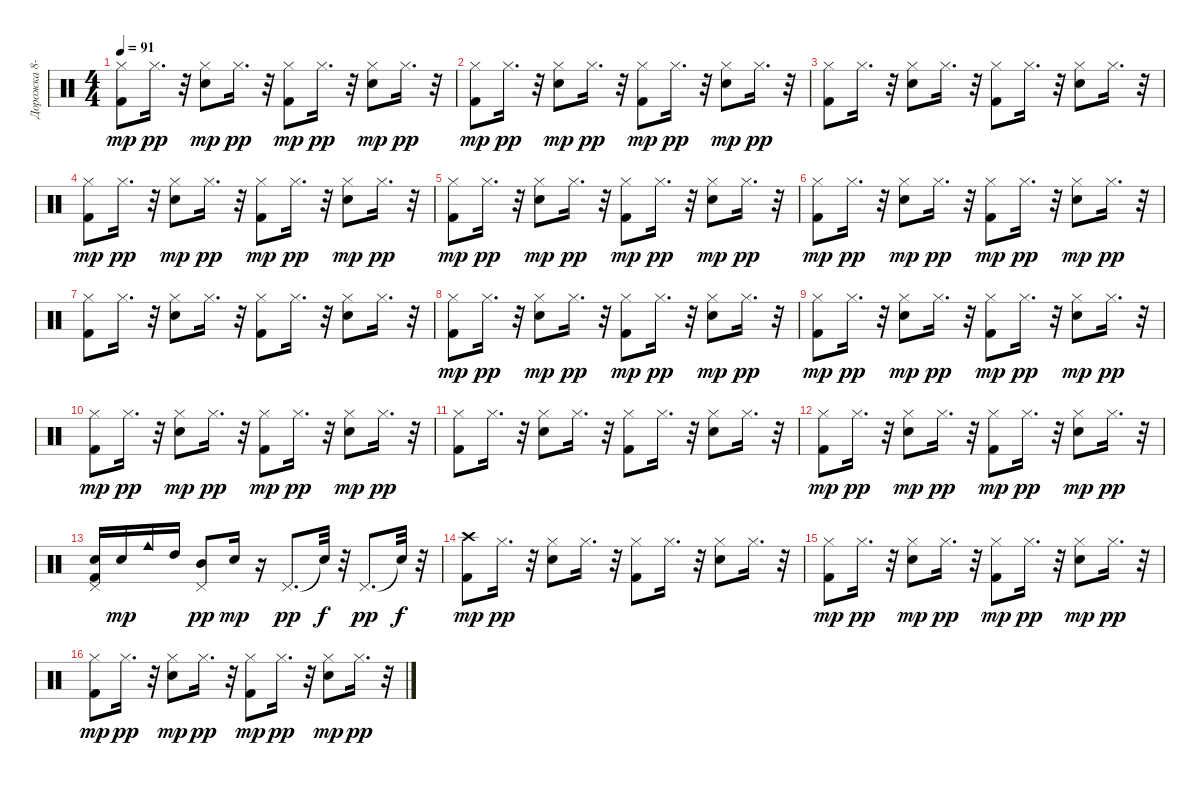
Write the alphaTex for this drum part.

\track ("Дорожка 8-9-10-11" "Дорожка 8-") {instrument percussion}
\staff {score}
\articulation defaults
\ts (4 4)
\tempo 91
\clef neutral
\ks c
("Hi-Hat (closed)" "Kick (hit) 2").8{dy mp} "Hi-Hat (closed)".16{d dy pp} r.32 ("Hi-Hat (closed)" "Electric Snare (hit)").8{dy mp} "Hi-Hat (closed)".16{d dy pp} r.32 ("Hi-Hat (closed)" "Kick (hit) 2").8{dy mp} "Hi-Hat (closed)".16{d dy pp} r.32 ("Hi-Hat (closed)" "Electric Snare (hit)").8{dy mp} "Hi-Hat (closed)".16{d dy pp} r.32 |
("Hi-Hat (closed)" "Kick (hit) 2").8{dy mp} "Hi-Hat (closed)".16{d dy pp} r.32 ("Hi-Hat (closed)" "Electric Snare (hit)").8{dy mp} "Hi-Hat (closed)".16{d dy pp} r.32 ("Hi-Hat (closed)" "Kick (hit) 2").8{dy mp} "Hi-Hat (closed)".16{d dy pp} r.32 ("Hi-Hat (closed)" "Electric Snare (hit)").8{dy mp} "Hi-Hat (closed)".16{d dy pp} r.32 |
("Kick (hit) 2" "Hi-Hat (closed)").8 "Hi-Hat (closed)".16{d} r.32 ("Electric Snare (hit)" "Hi-Hat (closed)").8 "Hi-Hat (closed)".16{d} r.32 ("Kick (hit) 2" "Hi-Hat (closed)").8 "Hi-Hat (closed)".16{d} r.32 ("Electric Snare (hit)" "Hi-Hat (closed)").8 "Hi-Hat (closed)".16{d} r.32 |
("Hi-Hat (closed)" "Kick (hit) 2").8{dy mp} "Hi-Hat (closed)".16{d dy pp} r.32 ("Hi-Hat (closed)" "Electric Snare (hit)").8{dy mp} "Hi-Hat (closed)".16{d dy pp} r.32 ("Hi-Hat (closed)" "Kick (hit) 2").8{dy mp} "Hi-Hat (closed)".16{d dy pp} r.32 ("Hi-Hat (closed)" "Electric Snare (hit)").8{dy mp} "Hi-Hat (closed)".16{d dy pp} r.32 |
("Hi-Hat (closed)" "Kick (hit) 2").8{dy mp} "Hi-Hat (closed)".16{d dy pp} r.32 ("Hi-Hat (closed)" "Electric Snare (hit)").8{dy mp} "Hi-Hat (closed)".16{d dy pp} r.32 ("Hi-Hat (closed)" "Kick (hit) 2").8{dy mp} "Hi-Hat (closed)".16{d dy pp} r.32 ("Hi-Hat (closed)" "Electric Snare (hit)").8{dy mp} "Hi-Hat (closed)".16{d dy pp} r.32 |
("Hi-Hat (closed)" "Kick (hit) 2").8{dy mp} "Hi-Hat (closed)".16{d dy pp} r.32 ("Hi-Hat (closed)" "Electric Snare (hit)").8{dy mp} "Hi-Hat (closed)".16{d dy pp} r.32 ("Hi-Hat (closed)" "Kick (hit) 2").8{dy mp} "Hi-Hat (closed)".16{d dy pp} r.32 ("Hi-Hat (closed)" "Electric Snare (hit)").8{dy mp} "Hi-Hat (closed)".16{d dy pp} r.32 |
("Kick (hit) 2" "Hi-Hat (closed)").8 "Hi-Hat (closed)".16{d} r.32 ("Electric Snare (hit)" "Hi-Hat (closed)").8 "Hi-Hat (closed)".16{d} r.32 ("Kick (hit) 2" "Hi-Hat (closed)").8 "Hi-Hat (closed)".16{d} r.32 ("Electric Snare (hit)" "Hi-Hat (closed)").8 "Hi-Hat (closed)".16{d} r.32 |
("Hi-Hat (closed)" "Kick (hit) 2").8{dy mp} "Hi-Hat (closed)".16{d dy pp} r.32 ("Hi-Hat (closed)" "Electric Snare (hit)").8{dy mp} "Hi-Hat (closed)".16{d dy pp} r.32 ("Hi-Hat (closed)" "Kick (hit) 2").8{dy mp} "Hi-Hat (closed)".16{d dy pp} r.32 ("Hi-Hat (closed)" "Electric Snare (hit)").8{dy mp} "Hi-Hat (closed)".16{d dy pp} r.32 |
("Hi-Hat (closed)" "Kick (hit) 2").8{dy mp} "Hi-Hat (closed)".16{d dy pp} r.32 ("Hi-Hat (closed)" "Electric Snare (hit)").8{dy mp} "Hi-Hat (closed)".16{d dy pp} r.32 ("Hi-Hat (closed)" "Kick (hit) 2").8{dy mp} "Hi-Hat (closed)".16{d dy pp} r.32 ("Hi-Hat (closed)" "Electric Snare (hit)").8{dy mp} "Hi-Hat (closed)".16{d dy pp} r.32 |
("Hi-Hat (closed)" "Kick (hit) 2").8{dy mp} "Hi-Hat (closed)".16{d dy pp} r.32 ("Hi-Hat (closed)" "Electric Snare (hit)").8{dy mp} "Hi-Hat (closed)".16{d dy pp} r.32 ("Hi-Hat (closed)" "Kick (hit) 2").8{dy mp} "Hi-Hat (closed)".16{d dy pp} r.32 ("Hi-Hat (closed)" "Electric Snare (hit)").8{dy mp} "Hi-Hat (closed)".16{d dy pp} r.32 |
("Kick (hit) 2" "Hi-Hat (closed)").8 "Hi-Hat (closed)".16{d} r.32 ("Electric Snare (hit)" "Hi-Hat (closed)").8 "Hi-Hat (closed)".16{d} r.32 ("Kick (hit) 2" "Hi-Hat (closed)").8 "Hi-Hat (closed)".16{d} r.32 ("Electric Snare (hit)" "Hi-Hat (closed)").8 "Hi-Hat (closed)".16{d} r.32 |
("Hi-Hat (closed)" "Kick (hit) 2").8{dy mp} "Hi-Hat (closed)".16{d dy pp} r.32 ("Hi-Hat (closed)" "Electric Snare (hit)").8{dy mp} "Hi-Hat (closed)".16{d dy pp} r.32 ("Hi-Hat (closed)" "Kick (hit) 2").8{dy mp} "Hi-Hat (closed)".16{d dy pp} r.32 ("Hi-Hat (closed)" "Electric Snare (hit)").8{dy mp} "Hi-Hat (closed)".16{d dy pp} r.32 |
("Electric Snare (hit)" "Kick (hit) 2" "Pedal Hi-Hat (hit)").16 "Electric Snare (hit)".16{dy mp} "Cowbell medium (hit)".16 "High Tom (hit)".16 ("Mid Tom (hit)" "Pedal Hi-Hat (hit)").8{dy pp} "Electric Snare (hit)".16{dy mp} r.16 "Pedal Hi-Hat (hit)".8{d dy pp} "Snare (hit)"{t}.32{dy f} r.32 "Pedal Hi-Hat (hit)".8{d dy pp} "Snare (hit)"{t}.32{dy f} r.32 |
("Kick (hit) 2" "Crash high (hit)").8{dy mp} "Hi-Hat (closed)".16{d dy pp} r.32 ("Electric Snare (hit)" "Hi-Hat (closed)").8 "Hi-Hat (closed)".16{d} r.32 ("Kick (hit) 2" "Hi-Hat (closed)").8 "Hi-Hat (closed)".16{d} r.32 ("Electric Snare (hit)" "Hi-Hat (closed)").8 "Hi-Hat (closed)".16{d} r.32 |
("Hi-Hat (closed)" "Kick (hit) 2").8{dy mp} "Hi-Hat (closed)".16{d dy pp} r.32 ("Hi-Hat (closed)" "Electric Snare (hit)").8{dy mp} "Hi-Hat (closed)".16{d dy pp} r.32 ("Hi-Hat (closed)" "Kick (hit) 2").8{dy mp} "Hi-Hat (closed)".16{d dy pp} r.32 ("Hi-Hat (closed)" "Electric Snare (hit)").8{dy mp} "Hi-Hat (closed)".16{d dy pp} r.32 |
("Hi-Hat (closed)" "Kick (hit) 2").8{dy mp} "Hi-Hat (closed)".16{d dy pp} r.32 ("Hi-Hat (closed)" "Electric Snare (hit)").8{dy mp} "Hi-Hat (closed)".16{d dy pp} r.32 ("Hi-Hat (closed)" "Kick (hit) 2").8{dy mp} "Hi-Hat (closed)".16{d dy pp} r.32 ("Hi-Hat (closed)" "Electric Snare (hit)").8{dy mp} "Hi-Hat (closed)".16{d dy pp} r.32
